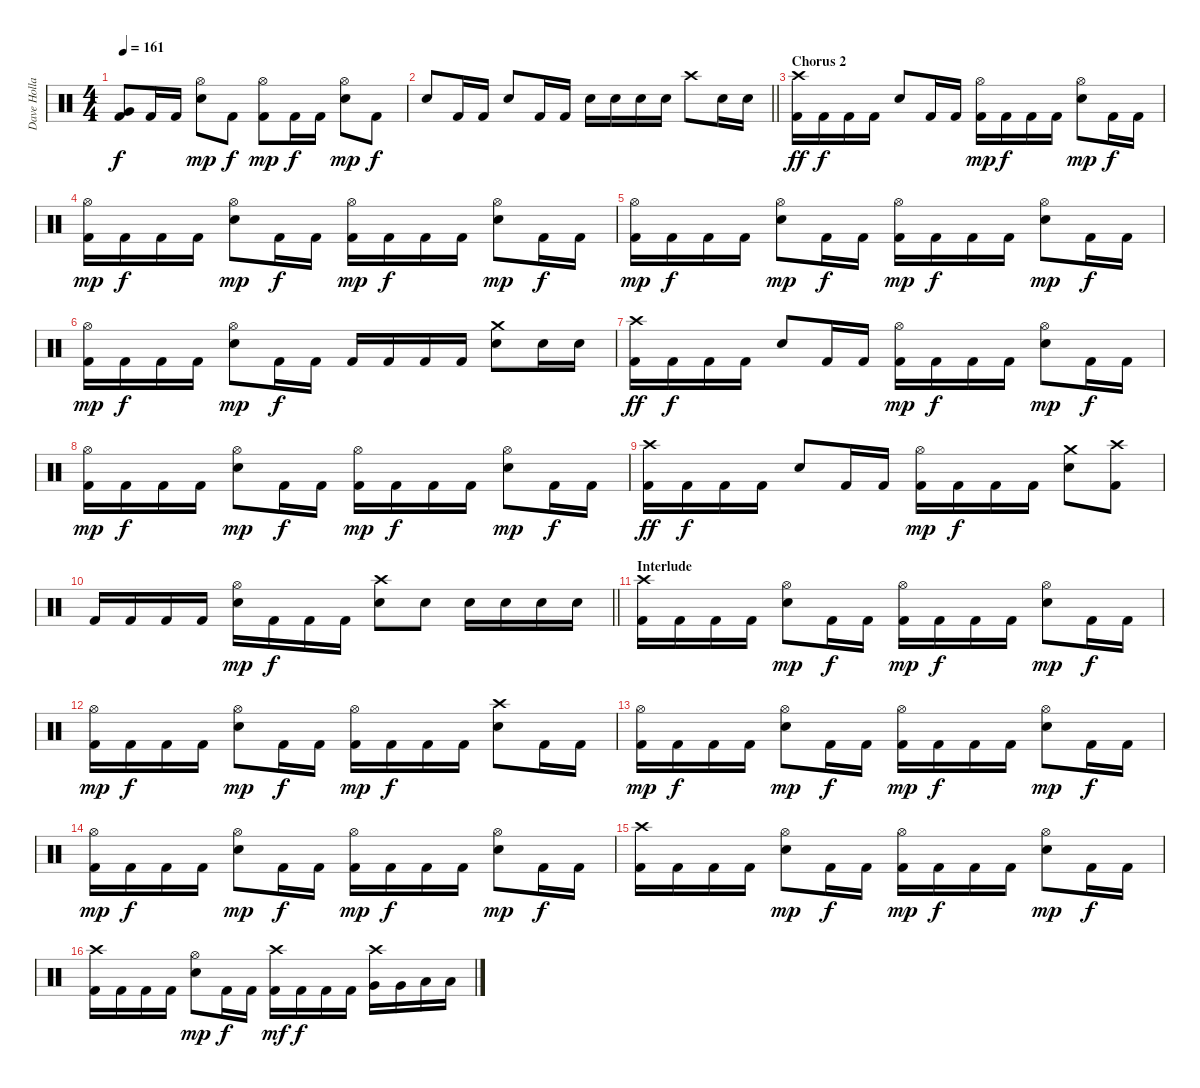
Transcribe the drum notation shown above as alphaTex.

\track ("Dave Holland" "Dave Holla") {instrument percussion}
\staff {score}
\articulation defaults
\ts (4 4)
\tempo 161
\clef neutral
\ks c
("Kick (hit) 2" "Very Low Tom (hit)").8{dy f} "Kick (hit) 2".16 "Kick (hit) 2".16 ("Hi-Hat (open)" "Snare (hit) 2").8{dy mp} "Kick (hit) 2".8{dy f} ("Kick (hit) 2" "Hi-Hat (open)").8{dy mp} "Kick (hit) 2".16{dy f} "Kick (hit) 2".16 ("Hi-Hat (open)" "Snare (hit) 2").8{dy mp} "Kick (hit) 2".8{dy f} |
\barLineRight lightlight "Snare (hit) 2".8 "Kick (hit) 2".16 "Kick (hit) 2".16 "Snare (hit) 2".8 "Kick (hit) 2".16 "Kick (hit) 2".16 "Snare (hit) 2".16 "Snare (hit) 2".16 "Snare (hit) 2".16 "Snare (hit) 2".16 "Crash high (hit)".8 "Snare (hit) 2".16 "Snare (hit) 2".16
|
\section ("" "Chorus 2")
("Kick (hit) 2" "Crash high (hit)").16{dy ff} "Kick (hit) 2".16{dy f} "Kick (hit) 2".16 "Kick (hit) 2".16 "Snare (hit) 2".8 "Kick (hit) 2".16 "Kick (hit) 2".16 ("Kick (hit) 2" "Hi-Hat (open)").16{dy mp} "Kick (hit) 2".16{dy f} "Kick (hit) 2".16 "Kick (hit) 2".16 ("Hi-Hat (open)" "Snare (hit) 2").8{dy mp} "Kick (hit) 2".16{dy f} "Kick (hit) 2".16 |
("Kick (hit) 2" "Hi-Hat (open)").16{dy mp} "Kick (hit) 2".16{dy f} "Kick (hit) 2".16 "Kick (hit) 2".16 ("Hi-Hat (open)" "Snare (hit) 2").8{dy mp} "Kick (hit) 2".16{dy f} "Kick (hit) 2".16 ("Kick (hit) 2" "Hi-Hat (open)").16{dy mp} "Kick (hit) 2".16{dy f} "Kick (hit) 2".16 "Kick (hit) 2".16 ("Hi-Hat (open)" "Snare (hit) 2").8{dy mp} "Kick (hit) 2".16{dy f} "Kick (hit) 2".16 |
("Kick (hit) 2" "Hi-Hat (open)").16{dy mp} "Kick (hit) 2".16{dy f} "Kick (hit) 2".16 "Kick (hit) 2".16 ("Hi-Hat (open)" "Snare (hit) 2").8{dy mp} "Kick (hit) 2".16{dy f} "Kick (hit) 2".16 ("Kick (hit) 2" "Hi-Hat (open)").16{dy mp} "Kick (hit) 2".16{dy f} "Kick (hit) 2".16 "Kick (hit) 2".16 ("Hi-Hat (open)" "Snare (hit) 2").8{dy mp} "Kick (hit) 2".16{dy f} "Kick (hit) 2".16 |
("Kick (hit) 2" "Hi-Hat (open)").16{dy mp} "Kick (hit) 2".16{dy f} "Kick (hit) 2".16 "Kick (hit) 2".16 ("Hi-Hat (open)" "Snare (hit) 2").8{dy mp} "Kick (hit) 2".16{dy f} "Kick (hit) 2".16 "Kick (hit) 2".16 "Kick (hit) 2".16 "Kick (hit) 2".16 "Kick (hit) 2".16 ("Crash medium (hit)" "Snare (hit) 2").8 "Snare (hit) 2".16 "Snare (hit) 2".16 |
("Kick (hit) 2" "Crash high (hit)").16{dy ff} "Kick (hit) 2".16{dy f} "Kick (hit) 2".16 "Kick (hit) 2".16 "Snare (hit) 2".8 "Kick (hit) 2".16 "Kick (hit) 2".16 ("Kick (hit) 2" "Hi-Hat (open)").16{dy mp} "Kick (hit) 2".16{dy f} "Kick (hit) 2".16 "Kick (hit) 2".16 ("Hi-Hat (open)" "Snare (hit) 2").8{dy mp} "Kick (hit) 2".16{dy f} "Kick (hit) 2".16 |
("Kick (hit) 2" "Hi-Hat (open)").16{dy mp} "Kick (hit) 2".16{dy f} "Kick (hit) 2".16 "Kick (hit) 2".16 ("Hi-Hat (open)" "Snare (hit) 2").8{dy mp} "Kick (hit) 2".16{dy f} "Kick (hit) 2".16 ("Kick (hit) 2" "Hi-Hat (open)").16{dy mp} "Kick (hit) 2".16{dy f} "Kick (hit) 2".16 "Kick (hit) 2".16 ("Hi-Hat (open)" "Snare (hit) 2").8{dy mp} "Kick (hit) 2".16{dy f} "Kick (hit) 2".16 |
("Kick (hit) 2" "Crash high (hit)").16{dy ff} "Kick (hit) 2".16{dy f} "Kick (hit) 2".16 "Kick (hit) 2".16 "Snare (hit) 2".8 "Kick (hit) 2".16 "Kick (hit) 2".16 ("Kick (hit) 2" "Hi-Hat (open)").16{dy mp} "Kick (hit) 2".16{dy f} "Kick (hit) 2".16 "Kick (hit) 2".16 ("Crash medium (hit)" "Snare (hit) 2").8 ("Kick (hit) 2" "Crash high (hit)").8 |
\barLineRight lightlight "Kick (hit) 2".16 "Kick (hit) 2".16 "Kick (hit) 2".16 "Kick (hit) 2".16
("Hi-Hat (open)" "Snare (hit) 2").16{dy mp} "Kick (hit) 2".16{dy f} "Kick (hit) 2".16 "Kick (hit) 2".16 ("Crash high (hit)" "Snare (hit) 2").8 "Snare (hit) 2".8 "Snare (hit) 2".16 "Snare (hit) 2".16 "Snare (hit) 2".16 "Snare (hit) 2".16 |
\section ("" "Interlude")
("Kick (hit) 2" "Crash high (hit)").16 "Kick (hit) 2".16 "Kick (hit) 2".16 "Kick (hit) 2".16 ("Hi-Hat (open)" "Snare (hit) 2").8{dy mp} "Kick (hit) 2".16{dy f} "Kick (hit) 2".16 ("Kick (hit) 2" "Hi-Hat (open)").16{dy mp} "Kick (hit) 2".16{dy f} "Kick (hit) 2".16 "Kick (hit) 2".16 ("Hi-Hat (open)" "Snare (hit) 2").8{dy mp} "Kick (hit) 2".16{dy f} "Kick (hit) 2".16 |
("Kick (hit) 2" "Hi-Hat (open)").16{dy mp} "Kick (hit) 2".16{dy f} "Kick (hit) 2".16 "Kick (hit) 2".16 ("Hi-Hat (open)" "Snare (hit) 2").8{dy mp} "Kick (hit) 2".16{dy f} "Kick (hit) 2".16 ("Kick (hit) 2" "Hi-Hat (open)").16{dy mp} "Kick (hit) 2".16{dy f} "Kick (hit) 2".16 "Kick (hit) 2".16 ("Crash high (hit)" "Snare (hit) 2").8 "Kick (hit) 2".16 "Kick (hit) 2".16 |
("Kick (hit) 2" "Hi-Hat (open)").16{dy mp} "Kick (hit) 2".16{dy f} "Kick (hit) 2".16 "Kick (hit) 2".16 ("Hi-Hat (open)" "Snare (hit) 2").8{dy mp} "Kick (hit) 2".16{dy f} "Kick (hit) 2".16 ("Kick (hit) 2" "Hi-Hat (open)").16{dy mp} "Kick (hit) 2".16{dy f} "Kick (hit) 2".16 "Kick (hit) 2".16 ("Hi-Hat (open)" "Snare (hit) 2").8{dy mp} "Kick (hit) 2".16{dy f} "Kick (hit) 2".16 |
("Kick (hit) 2" "Hi-Hat (open)").16{dy mp} "Kick (hit) 2".16{dy f} "Kick (hit) 2".16 "Kick (hit) 2".16 ("Hi-Hat (open)" "Snare (hit) 2").8{dy mp} "Kick (hit) 2".16{dy f} "Kick (hit) 2".16 ("Kick (hit) 2" "Hi-Hat (open)").16{dy mp} "Kick (hit) 2".16{dy f} "Kick (hit) 2".16 "Kick (hit) 2".16 ("Hi-Hat (open)" "Snare (hit) 2").8{dy mp} "Kick (hit) 2".16{dy f} "Kick (hit) 2".16 |
("Kick (hit) 2" "Crash high (hit)").16 "Kick (hit) 2".16 "Kick (hit) 2".16 "Kick (hit) 2".16 ("Hi-Hat (open)" "Snare (hit) 2").8{dy mp} "Kick (hit) 2".16{dy f} "Kick (hit) 2".16 ("Kick (hit) 2" "Hi-Hat (open)").16{dy mp} "Kick (hit) 2".16{dy f} "Kick (hit) 2".16 "Kick (hit) 2".16 ("Hi-Hat (open)" "Snare (hit) 2").8{dy mp} "Kick (hit) 2".16{dy f} "Kick (hit) 2".16 |
("Kick (hit) 2" "Crash high (hit)").16 "Kick (hit) 2".16 "Kick (hit) 2".16 "Kick (hit) 2".16 ("Hi-Hat (open)" "Snare (hit) 2").8{dy mp} "Kick (hit) 2".16{dy f} "Kick (hit) 2".16 ("Kick (hit) 2" "Crash high (hit)").16{dy mf} "Kick (hit) 2".16{dy f} "Kick (hit) 2".16 "Kick (hit) 2".16 ("Crash high (hit)" "Very Low Tom (hit)").16 "Very Low Tom (hit)".16 "Low Tom (hit)".16 "Low Tom (hit)".16
